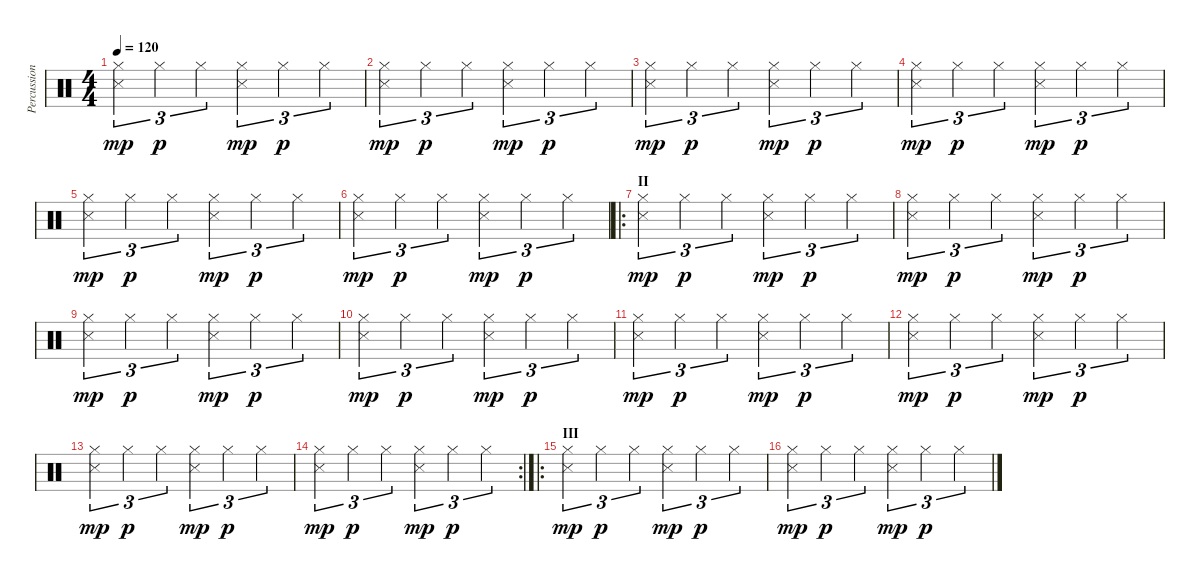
\track ("Percussion" "Percussion") {instrument percussion}
\staff {score}
\articulation defaults
\ts (4 4)
\tempo 120
\clef neutral
\ks c
("Hi-Hat (closed)" "Snare (side stick) 3").4{tu (3 2) dy mp} "Hi-Hat (closed)".4{tu (3 2) dy p} "Hi-Hat (closed)".4{tu (3 2)} ("Hi-Hat (closed)" "Snare (side stick) 3").4{tu (3 2) dy mp} "Hi-Hat (closed)".4{tu (3 2) dy p} "Hi-Hat (closed)".4{tu (3 2)} |
("Hi-Hat (closed)" "Snare (side stick) 3").4{tu (3 2) dy mp} "Hi-Hat (closed)".4{tu (3 2) dy p} "Hi-Hat (closed)".4{tu (3 2)} ("Hi-Hat (closed)" "Snare (side stick) 3").4{tu (3 2) dy mp} "Hi-Hat (closed)".4{tu (3 2) dy p} "Hi-Hat (closed)".4{tu (3 2)} |
("Hi-Hat (closed)" "Snare (side stick) 3").4{tu (3 2) dy mp} "Hi-Hat (closed)".4{tu (3 2) dy p} "Hi-Hat (closed)".4{tu (3 2)} ("Hi-Hat (closed)" "Snare (side stick) 3").4{tu (3 2) dy mp} "Hi-Hat (closed)".4{tu (3 2) dy p} "Hi-Hat (closed)".4{tu (3 2)} |
("Hi-Hat (closed)" "Snare (side stick) 3").4{tu (3 2) dy mp} "Hi-Hat (closed)".4{tu (3 2) dy p} "Hi-Hat (closed)".4{tu (3 2)} ("Hi-Hat (closed)" "Snare (side stick) 3").4{tu (3 2) dy mp} "Hi-Hat (closed)".4{tu (3 2) dy p} "Hi-Hat (closed)".4{tu (3 2)} |
("Hi-Hat (closed)" "Snare (side stick) 3").4{tu (3 2) dy mp} "Hi-Hat (closed)".4{tu (3 2) dy p} "Hi-Hat (closed)".4{tu (3 2)} ("Hi-Hat (closed)" "Snare (side stick) 3").4{tu (3 2) dy mp} "Hi-Hat (closed)".4{tu (3 2) dy p} "Hi-Hat (closed)".4{tu (3 2)} |
("Hi-Hat (closed)" "Snare (side stick) 3").4{tu (3 2) dy mp} "Hi-Hat (closed)".4{tu (3 2) dy p} "Hi-Hat (closed)".4{tu (3 2)} ("Hi-Hat (closed)" "Snare (side stick) 3").4{tu (3 2) dy mp} "Hi-Hat (closed)".4{tu (3 2) dy p} "Hi-Hat (closed)".4{tu (3 2)} |
\ro
\section ("" "II")
("Hi-Hat (closed)" "Snare (side stick) 3").4{tu (3 2) dy mp} "Hi-Hat (closed)".4{tu (3 2) dy p} "Hi-Hat (closed)".4{tu (3 2)} ("Hi-Hat (closed)" "Snare (side stick) 3").4{tu (3 2) dy mp} "Hi-Hat (closed)".4{tu (3 2) dy p} "Hi-Hat (closed)".4{tu (3 2)} |
("Hi-Hat (closed)" "Snare (side stick) 3").4{tu (3 2) dy mp} "Hi-Hat (closed)".4{tu (3 2) dy p} "Hi-Hat (closed)".4{tu (3 2)} ("Hi-Hat (closed)" "Snare (side stick) 3").4{tu (3 2) dy mp} "Hi-Hat (closed)".4{tu (3 2) dy p} "Hi-Hat (closed)".4{tu (3 2)} |
("Hi-Hat (closed)" "Snare (side stick) 3").4{tu (3 2) dy mp} "Hi-Hat (closed)".4{tu (3 2) dy p} "Hi-Hat (closed)".4{tu (3 2)} ("Hi-Hat (closed)" "Snare (side stick) 3").4{tu (3 2) dy mp} "Hi-Hat (closed)".4{tu (3 2) dy p} "Hi-Hat (closed)".4{tu (3 2)} |
("Hi-Hat (closed)" "Snare (side stick) 3").4{tu (3 2) dy mp} "Hi-Hat (closed)".4{tu (3 2) dy p} "Hi-Hat (closed)".4{tu (3 2)} ("Hi-Hat (closed)" "Snare (side stick) 3").4{tu (3 2) dy mp} "Hi-Hat (closed)".4{tu (3 2) dy p} "Hi-Hat (closed)".4{tu (3 2)} |
("Hi-Hat (closed)" "Snare (side stick) 3").4{tu (3 2) dy mp} "Hi-Hat (closed)".4{tu (3 2) dy p} "Hi-Hat (closed)".4{tu (3 2)} ("Hi-Hat (closed)" "Snare (side stick) 3").4{tu (3 2) dy mp} "Hi-Hat (closed)".4{tu (3 2) dy p} "Hi-Hat (closed)".4{tu (3 2)} |
("Hi-Hat (closed)" "Snare (side stick) 3").4{tu (3 2) dy mp} "Hi-Hat (closed)".4{tu (3 2) dy p} "Hi-Hat (closed)".4{tu (3 2)} ("Hi-Hat (closed)" "Snare (side stick) 3").4{tu (3 2) dy mp} "Hi-Hat (closed)".4{tu (3 2) dy p} "Hi-Hat (closed)".4{tu (3 2)} |
("Hi-Hat (closed)" "Snare (side stick) 3").4{tu (3 2) dy mp} "Hi-Hat (closed)".4{tu (3 2) dy p} "Hi-Hat (closed)".4{tu (3 2)} ("Hi-Hat (closed)" "Snare (side stick) 3").4{tu (3 2) dy mp} "Hi-Hat (closed)".4{tu (3 2) dy p} "Hi-Hat (closed)".4{tu (3 2)} |
\rc 2
("Hi-Hat (closed)" "Snare (side stick) 3").4{tu (3 2) dy mp} "Hi-Hat (closed)".4{tu (3 2) dy p} "Hi-Hat (closed)".4{tu (3 2)} ("Hi-Hat (closed)" "Snare (side stick) 3").4{tu (3 2) dy mp} "Hi-Hat (closed)".4{tu (3 2) dy p} "Hi-Hat (closed)".4{tu (3 2)} |
\ro
\section ("" "III")
("Hi-Hat (closed)" "Snare (side stick) 3").4{tu (3 2) dy mp} "Hi-Hat (closed)".4{tu (3 2) dy p} "Hi-Hat (closed)".4{tu (3 2)} ("Hi-Hat (closed)" "Snare (side stick) 3").4{tu (3 2) dy mp} "Hi-Hat (closed)".4{tu (3 2) dy p} "Hi-Hat (closed)".4{tu (3 2)} |
("Hi-Hat (closed)" "Snare (side stick) 3").4{tu (3 2) dy mp} "Hi-Hat (closed)".4{tu (3 2) dy p} "Hi-Hat (closed)".4{tu (3 2)} ("Hi-Hat (closed)" "Snare (side stick) 3").4{tu (3 2) dy mp} "Hi-Hat (closed)".4{tu (3 2) dy p} "Hi-Hat (closed)".4{tu (3 2)}
